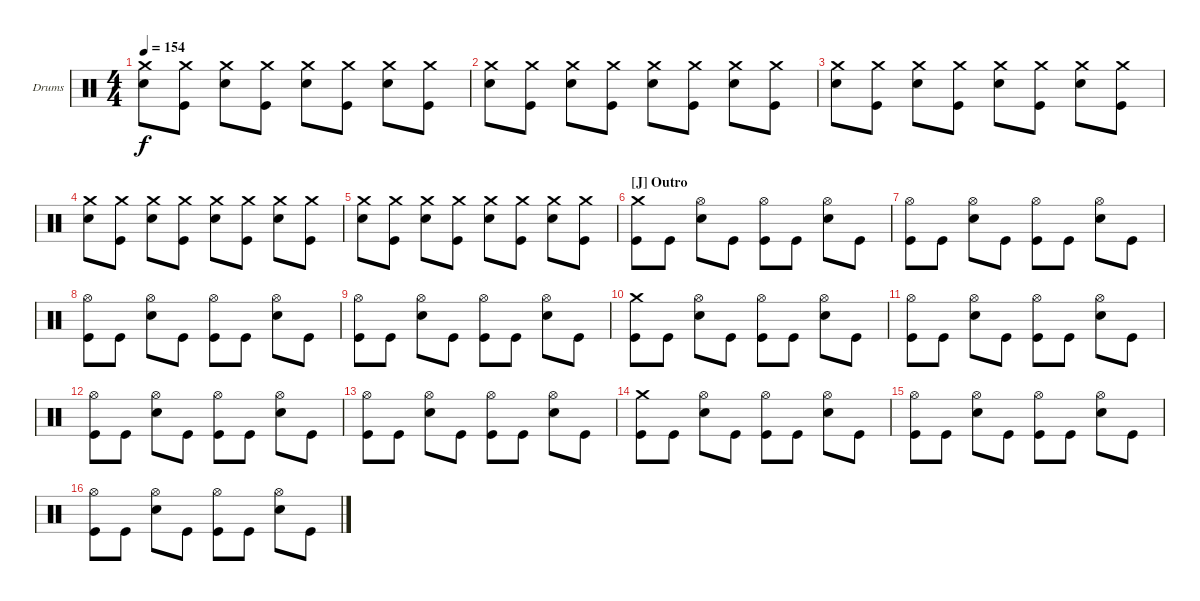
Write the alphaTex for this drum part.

\defaultSystemsLayout 4
\bracketExtendMode groupsimilarinstruments
\firstSystemTrackNameOrientation horizontal
\otherSystemsTrackNameOrientation horizontal
\track ("Drumkit" "Drums") {instrument percussion}
\staff {score}
\articulation defaults
\ts (4 4)
\tempo 154
\clef neutral
\scale
1.02648
\ks c
("Crash medium (hit)" "Snare (hit) 2").8{dy f} ("Crash medium (hit)" "Kick (hit)").8 ("Crash medium (hit)" "Snare (hit) 2").8 ("Crash medium (hit)" "Kick (hit)").8 ("Crash medium (hit)" "Snare (hit) 2").8 ("Crash medium (hit)" "Kick (hit)").8 ("Crash medium (hit)" "Snare (hit) 2").8 ("Crash medium (hit)" "Kick (hit)").8 |
\scale
0.973518 ("Crash medium (hit)" "Snare (hit) 2").8 ("Crash medium (hit)" "Kick (hit)").8 ("Crash medium (hit)" "Snare (hit) 2").8 ("Crash medium (hit)" "Kick (hit)").8 ("Crash medium (hit)" "Snare (hit) 2").8 ("Crash medium (hit)" "Kick (hit)").8 ("Crash medium (hit)" "Snare (hit) 2").8 ("Crash medium (hit)" "Kick (hit)").8 |
\scale
1.02648 ("Crash medium (hit)" "Snare (hit) 2").8 ("Crash medium (hit)" "Kick (hit)").8 ("Crash medium (hit)" "Snare (hit) 2").8 ("Crash medium (hit)" "Kick (hit)").8 ("Crash medium (hit)" "Snare (hit) 2").8 ("Crash medium (hit)" "Kick (hit)").8 ("Crash medium (hit)" "Snare (hit) 2").8 ("Crash medium (hit)" "Kick (hit)").8 |
\scale
0.973518 ("Crash medium (hit)" "Snare (hit) 2").8 ("Crash medium (hit)" "Kick (hit)").8 ("Crash medium (hit)" "Snare (hit) 2").8 ("Crash medium (hit)" "Kick (hit)").8 ("Crash medium (hit)" "Snare (hit) 2").8 ("Crash medium (hit)" "Kick (hit)").8 ("Crash medium (hit)" "Snare (hit) 2").8 ("Crash medium (hit)" "Kick (hit)").8 |
\scale
1.02648 ("Crash medium (hit)" "Snare (hit) 2").8 ("Crash medium (hit)" "Kick (hit)").8 ("Crash medium (hit)" "Snare (hit) 2").8 ("Crash medium (hit)" "Kick (hit)").8 ("Crash medium (hit)" "Snare (hit) 2").8 ("Crash medium (hit)" "Kick (hit)").8 ("Crash medium (hit)" "Snare (hit) 2").8 ("Crash medium (hit)" "Kick (hit)").8 |
\section ("J" "Outro")
\scale
0.973518 ("Crash medium (hit)" "Kick (hit)").8 "Kick (hit)".8 ("Hi-Hat (open)" "Snare (hit) 2").8 "Kick (hit)".8 ("Hi-Hat (open)" "Kick (hit)").8 "Kick (hit)".8 ("Hi-Hat (open)" "Snare (hit) 2").8 "Kick (hit)".8 |
\scale
1.02648 ("Hi-Hat (open)" "Kick (hit)").8 "Kick (hit)".8 ("Hi-Hat (open)" "Snare (hit) 2").8 "Kick (hit)".8 ("Hi-Hat (open)" "Kick (hit)").8 "Kick (hit)".8 ("Hi-Hat (open)" "Snare (hit) 2").8 "Kick (hit)".8 |
\scale
0.973518 ("Hi-Hat (open)" "Kick (hit)").8 "Kick (hit)".8 ("Hi-Hat (open)" "Snare (hit) 2").8 "Kick (hit)".8 ("Hi-Hat (open)" "Kick (hit)").8 "Kick (hit)".8 ("Hi-Hat (open)" "Snare (hit) 2").8 "Kick (hit)".8 |
\scale
1.02648 ("Hi-Hat (open)" "Kick (hit)").8 "Kick (hit)".8 ("Hi-Hat (open)" "Snare (hit) 2").8 "Kick (hit)".8 ("Hi-Hat (open)" "Kick (hit)").8 "Kick (hit)".8 ("Hi-Hat (open)" "Snare (hit) 2").8 "Kick (hit)".8 |
\scale
0.973518 ("Crash medium (hit)" "Kick (hit)").8 "Kick (hit)".8 ("Hi-Hat (open)" "Snare (hit) 2").8 "Kick (hit)".8 ("Hi-Hat (open)" "Kick (hit)").8 "Kick (hit)".8 ("Hi-Hat (open)" "Snare (hit) 2").8 "Kick (hit)".8 |
\scale
1.02648 ("Hi-Hat (open)" "Kick (hit)").8 "Kick (hit)".8 ("Hi-Hat (open)" "Snare (hit) 2").8 "Kick (hit)".8 ("Hi-Hat (open)" "Kick (hit)").8 "Kick (hit)".8 ("Hi-Hat (open)" "Snare (hit) 2").8 "Kick (hit)".8 |
\scale
0.973518 ("Hi-Hat (open)" "Kick (hit)").8 "Kick (hit)".8 ("Hi-Hat (open)" "Snare (hit) 2").8 "Kick (hit)".8 ("Hi-Hat (open)" "Kick (hit)").8 "Kick (hit)".8 ("Hi-Hat (open)" "Snare (hit) 2").8 "Kick (hit)".8 |
\scale
1.02648 ("Hi-Hat (open)" "Kick (hit)").8 "Kick (hit)".8 ("Hi-Hat (open)" "Snare (hit) 2").8 "Kick (hit)".8 ("Hi-Hat (open)" "Kick (hit)").8 "Kick (hit)".8 ("Hi-Hat (open)" "Snare (hit) 2").8 "Kick (hit)".8 |
\scale
0.973518 ("Crash medium (hit)" "Kick (hit)").8 "Kick (hit)".8 ("Hi-Hat (open)" "Snare (hit) 2").8 "Kick (hit)".8 ("Hi-Hat (open)" "Kick (hit)").8 "Kick (hit)".8 ("Hi-Hat (open)" "Snare (hit) 2").8 "Kick (hit)".8 |
\scale
1.02648 ("Hi-Hat (open)" "Kick (hit)").8 "Kick (hit)".8 ("Hi-Hat (open)" "Snare (hit) 2").8 "Kick (hit)".8 ("Hi-Hat (open)" "Kick (hit)").8 "Kick (hit)".8 ("Hi-Hat (open)" "Snare (hit) 2").8 "Kick (hit)".8 |
\scale
0.973518 ("Hi-Hat (open)" "Kick (hit)").8 "Kick (hit)".8 ("Hi-Hat (open)" "Snare (hit) 2").8 "Kick (hit)".8 ("Hi-Hat (open)" "Kick (hit)").8 "Kick (hit)".8 ("Hi-Hat (open)" "Snare (hit) 2").8 "Kick (hit)".8
